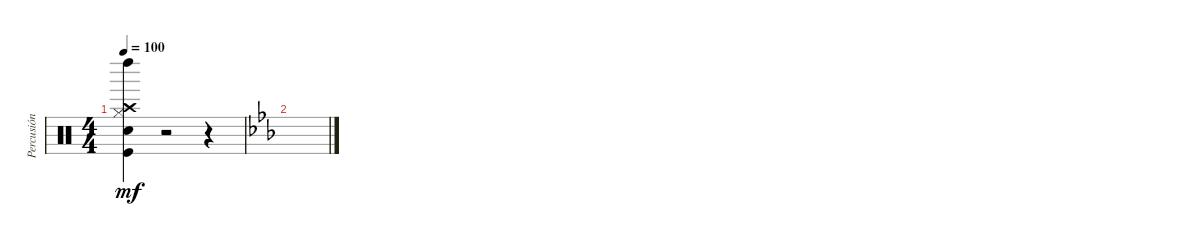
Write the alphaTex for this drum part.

\track ("Percusión" "Percusión") {instrument percussion}
\staff {score}
\articulation defaults
\ts (4 4)
\tempo 100
\clef neutral
\ks c
("Kick (hit)" "Snare (hit) 2" "Hi-Hat (closed)" "Crash high (hit)" "Left Maraca (hit)").4{dy mf} r.2 r.4 |
\ks eb
